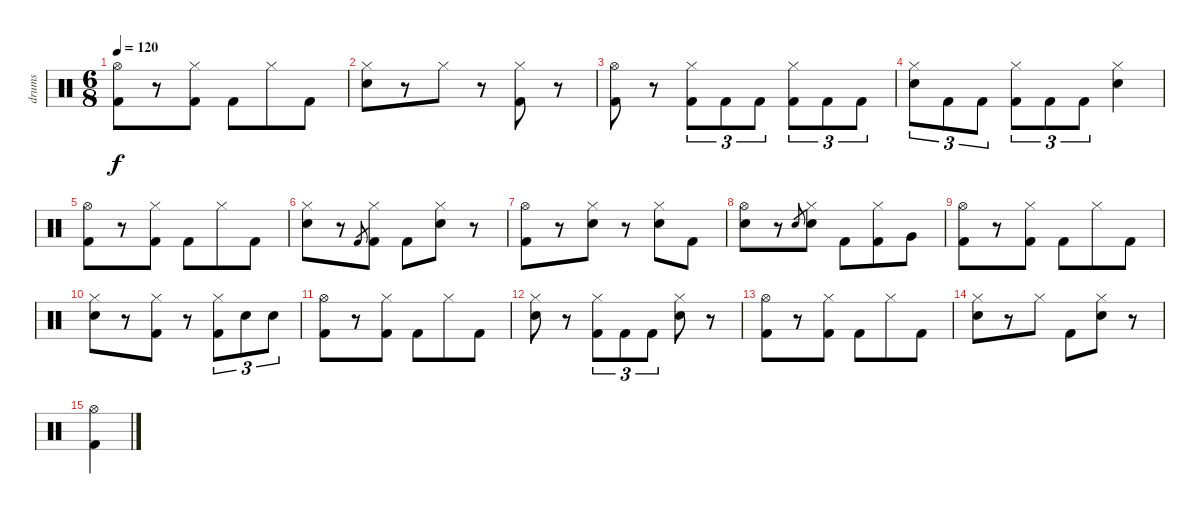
\track ("drums" "drums") {instrument percussion}
\staff {score}
\articulation defaults
\ts (6 8)
\tempo 120
\clef neutral
\ks c
("Hi-Hat (open)" "Kick (hit) 2").8{dy f} r.8 ("Hi-Hat (closed)" "Kick (hit) 2").8 "Kick (hit) 2".8 "Hi-Hat (closed)".8 "Kick (hit) 2".8 |
("Hi-Hat (closed)" "Snare (hit) 2").8 r.8 "Hi-Hat (closed)".8 r.8 ("Hi-Hat (closed)" "Kick (hit) 2").8 r.8 |
("Hi-Hat (open)" "Kick (hit) 2").8 r.8 ("Hi-Hat (closed)" "Kick (hit) 2").8{tu (3 2)} "Kick (hit) 2".8{tu (3 2)} "Kick (hit) 2".8{tu (3 2)} ("Hi-Hat (closed)" "Kick (hit) 2").8{tu (3 2)} "Kick (hit) 2".8{tu (3 2)} "Kick (hit) 2".8{tu (3 2)} |
("Hi-Hat (closed)" "Snare (hit) 2").8{tu (3 2)} "Kick (hit) 2".8{tu (3 2)} "Kick (hit) 2".8{tu (3 2)} ("Hi-Hat (closed)" "Kick (hit) 2").8{tu (3 2)} "Kick (hit) 2".8{tu (3 2)} "Kick (hit) 2".8{tu (3 2)} ("Hi-Hat (closed)" "Snare (hit) 2").4 |
("Hi-Hat (open)" "Kick (hit) 2").8 r.8 ("Hi-Hat (closed)" "Kick (hit) 2").8 "Kick (hit) 2".8 "Hi-Hat (closed)".8 "Kick (hit) 2".8 |
("Hi-Hat (closed)" "Snare (hit) 2").8 r.8 "Kick (hit) 2".8{gr} ("Hi-Hat (closed)" "Kick (hit) 2").8 "Kick (hit) 2".8 ("Hi-Hat (closed)" "Snare (hit) 2").8 r.8 |
("Hi-Hat (open)" "Kick (hit) 2").8 r.8 ("Hi-Hat (closed)" "Snare (hit) 2").8 r.8 ("Hi-Hat (closed)" "Snare (hit) 2").8 "Kick (hit) 2".8 |
("Hi-Hat (open)" "Snare (hit) 2").8 r.8 "Snare (hit) 2".8{gr} ("Hi-Hat (closed)" "Snare (hit) 2").8 "Kick (hit) 2".8 ("Hi-Hat (closed)" "Kick (hit) 2").8 "Very Low Tom (hit)".8 |
("Hi-Hat (open)" "Kick (hit) 2").8 r.8 ("Hi-Hat (closed)" "Kick (hit) 2").8 "Kick (hit) 2".8 "Hi-Hat (closed)".8 "Kick (hit) 2".8 |
("Hi-Hat (closed)" "Snare (hit) 2").8 r.8 ("Hi-Hat (closed)" "Kick (hit) 2").8 r.8 ("Hi-Hat (closed)" "Kick (hit) 2").8{tu (3 2)} "Snare (hit) 2".8{tu (3 2)} "Snare (hit) 2".8{tu (3 2)} |
("Hi-Hat (open)" "Kick (hit) 2").8 r.8 ("Hi-Hat (closed)" "Kick (hit) 2").8 "Kick (hit) 2".8 "Hi-Hat (closed)".8 "Kick (hit) 2".8 |
("Hi-Hat (closed)" "Snare (hit) 2").8 r.8 ("Hi-Hat (closed)" "Kick (hit) 2").8{tu (3 2)} "Kick (hit) 2".8{tu (3 2)} "Kick (hit) 2".8{tu (3 2)} ("Hi-Hat (closed)" "Snare (hit) 2").8 r.8 |
("Hi-Hat (open)" "Kick (hit) 2").8 r.8 ("Hi-Hat (closed)" "Kick (hit) 2").8 "Kick (hit) 2".8 "Hi-Hat (closed)".8 "Kick (hit) 2".8 |
("Hi-Hat (closed)" "Snare (hit) 2").8 r.8 "Hi-Hat (closed)".8 "Kick (hit) 2".8 ("Hi-Hat (closed)" "Snare (hit) 2").8 r.8 |
("Hi-Hat (open)" "Kick (hit) 2").4
